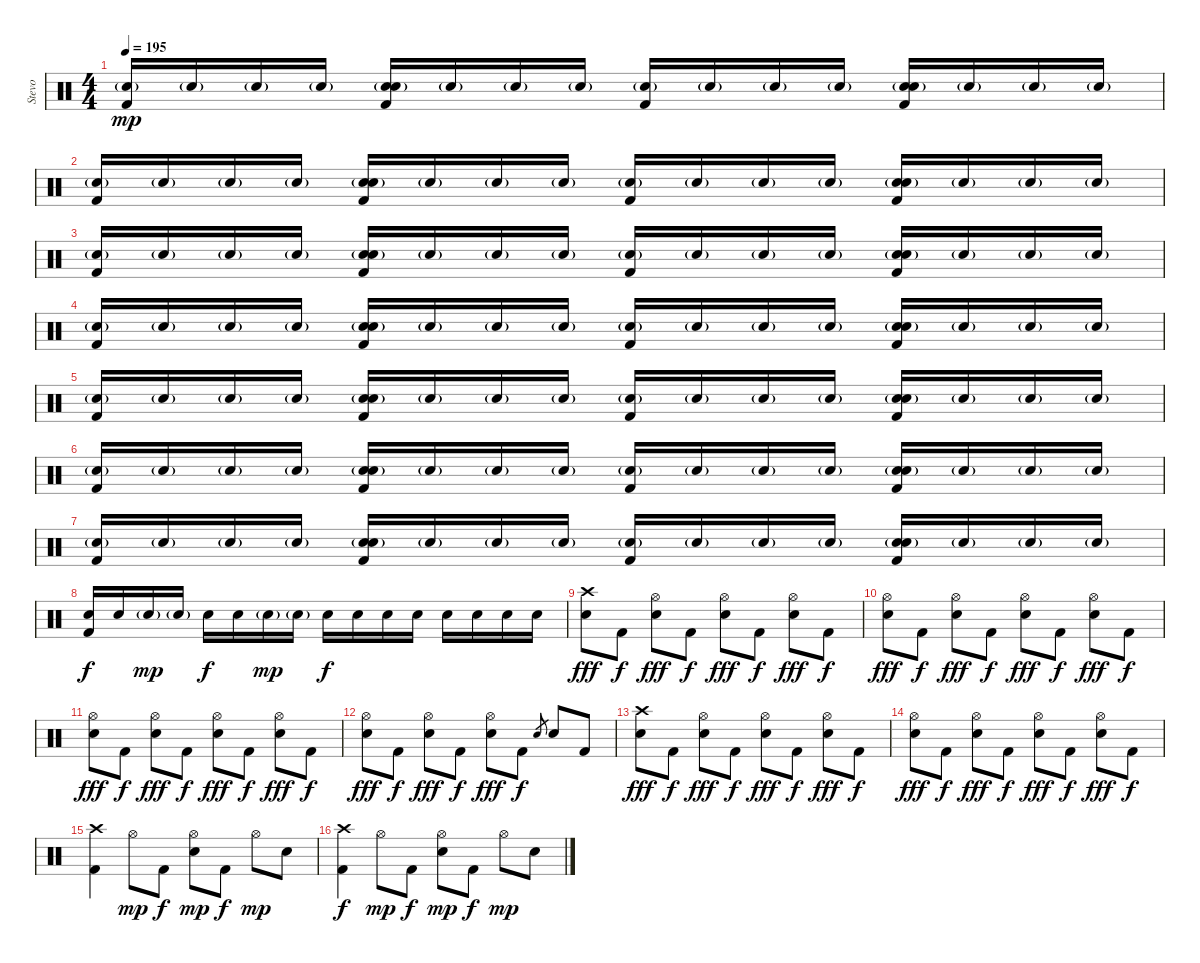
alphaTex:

\track ("Stevo" "Stevo") {instrument percussion}
\staff {score}
\articulation defaults
\ts (4 4)
\tempo 195
\clef neutral
\ks c
("Electric Snare (hit)"{g} "Kick (hit) 2").16{dy mp} "Electric Snare (hit)"{g}.16 "Electric Snare (hit)"{g}.16 "Electric Snare (hit)"{g}.16 ("Electric Snare (hit)"{g} "Electric Snare (hit)" "Kick (hit) 2").16 "Electric Snare (hit)"{g}.16 "Electric Snare (hit)"{g}.16 "Electric Snare (hit)"{g}.16 ("Electric Snare (hit)"{g} "Kick (hit) 2").16 "Electric Snare (hit)"{g}.16 "Electric Snare (hit)"{g}.16 "Electric Snare (hit)"{g}.16 ("Electric Snare (hit)"{g} "Electric Snare (hit)" "Kick (hit) 2").16 "Electric Snare (hit)"{g}.16 "Electric Snare (hit)"{g}.16 "Electric Snare (hit)"{g}.16 |
("Electric Snare (hit)"{g} "Kick (hit) 2").16 "Electric Snare (hit)"{g}.16 "Electric Snare (hit)"{g}.16 "Electric Snare (hit)"{g}.16 ("Electric Snare (hit)"{g} "Electric Snare (hit)" "Kick (hit) 2").16 "Electric Snare (hit)"{g}.16 "Electric Snare (hit)"{g}.16 "Electric Snare (hit)"{g}.16 ("Electric Snare (hit)"{g} "Kick (hit) 2").16 "Electric Snare (hit)"{g}.16 "Electric Snare (hit)"{g}.16 "Electric Snare (hit)"{g}.16 ("Electric Snare (hit)"{g} "Electric Snare (hit)" "Kick (hit) 2").16 "Electric Snare (hit)"{g}.16 "Electric Snare (hit)"{g}.16 "Electric Snare (hit)"{g}.16 |
("Electric Snare (hit)"{g} "Kick (hit) 2").16 "Electric Snare (hit)"{g}.16 "Electric Snare (hit)"{g}.16 "Electric Snare (hit)"{g}.16 ("Electric Snare (hit)"{g} "Electric Snare (hit)" "Kick (hit) 2").16 "Electric Snare (hit)"{g}.16 "Electric Snare (hit)"{g}.16 "Electric Snare (hit)"{g}.16 ("Electric Snare (hit)"{g} "Kick (hit) 2").16 "Electric Snare (hit)"{g}.16 "Electric Snare (hit)"{g}.16 "Electric Snare (hit)"{g}.16 ("Electric Snare (hit)"{g} "Electric Snare (hit)" "Kick (hit) 2").16 "Electric Snare (hit)"{g}.16 "Electric Snare (hit)"{g}.16 "Electric Snare (hit)"{g}.16 |
("Electric Snare (hit)"{g} "Kick (hit) 2").16 "Electric Snare (hit)"{g}.16 "Electric Snare (hit)"{g}.16 "Electric Snare (hit)"{g}.16 ("Electric Snare (hit)"{g} "Electric Snare (hit)" "Kick (hit) 2").16 "Electric Snare (hit)"{g}.16 "Electric Snare (hit)"{g}.16 "Electric Snare (hit)"{g}.16 ("Electric Snare (hit)"{g} "Kick (hit) 2").16 "Electric Snare (hit)"{g}.16 "Electric Snare (hit)"{g}.16 "Electric Snare (hit)"{g}.16 ("Electric Snare (hit)"{g} "Electric Snare (hit)" "Kick (hit) 2").16 "Electric Snare (hit)"{g}.16 "Electric Snare (hit)"{g}.16 "Electric Snare (hit)"{g}.16 |
("Electric Snare (hit)"{g} "Kick (hit) 2").16 "Electric Snare (hit)"{g}.16 "Electric Snare (hit)"{g}.16 "Electric Snare (hit)"{g}.16 ("Electric Snare (hit)"{g} "Electric Snare (hit)" "Kick (hit) 2").16 "Electric Snare (hit)"{g}.16 "Electric Snare (hit)"{g}.16 "Electric Snare (hit)"{g}.16 ("Electric Snare (hit)"{g} "Kick (hit) 2").16 "Electric Snare (hit)"{g}.16 "Electric Snare (hit)"{g}.16 "Electric Snare (hit)"{g}.16 ("Electric Snare (hit)"{g} "Electric Snare (hit)" "Kick (hit) 2").16 "Electric Snare (hit)"{g}.16 "Electric Snare (hit)"{g}.16 "Electric Snare (hit)"{g}.16 |
("Electric Snare (hit)"{g} "Kick (hit) 2").16 "Electric Snare (hit)"{g}.16 "Electric Snare (hit)"{g}.16 "Electric Snare (hit)"{g}.16 ("Electric Snare (hit)"{g} "Electric Snare (hit)" "Kick (hit) 2").16 "Electric Snare (hit)"{g}.16 "Electric Snare (hit)"{g}.16 "Electric Snare (hit)"{g}.16 ("Electric Snare (hit)"{g} "Kick (hit) 2").16 "Electric Snare (hit)"{g}.16 "Electric Snare (hit)"{g}.16 "Electric Snare (hit)"{g}.16 ("Electric Snare (hit)"{g} "Electric Snare (hit)" "Kick (hit) 2").16 "Electric Snare (hit)"{g}.16 "Electric Snare (hit)"{g}.16 "Electric Snare (hit)"{g}.16 |
("Electric Snare (hit)"{g} "Kick (hit) 2").16 "Electric Snare (hit)"{g}.16 "Electric Snare (hit)"{g}.16 "Electric Snare (hit)"{g}.16 ("Electric Snare (hit)"{g} "Electric Snare (hit)" "Kick (hit) 2").16 "Electric Snare (hit)"{g}.16 "Electric Snare (hit)"{g}.16 "Electric Snare (hit)"{g}.16 ("Electric Snare (hit)"{g} "Kick (hit) 2").16 "Electric Snare (hit)"{g}.16 "Electric Snare (hit)"{g}.16 "Electric Snare (hit)"{g}.16 ("Electric Snare (hit)"{g} "Electric Snare (hit)" "Kick (hit) 2").16 "Electric Snare (hit)"{g}.16 "Electric Snare (hit)"{g}.16 "Electric Snare (hit)"{g}.16 |
("Electric Snare (hit)" "Kick (hit) 2").16{dy f} "Electric Snare (hit)".16 "Electric Snare (hit)"{g}.16{dy mp} "Electric Snare (hit)"{g}.16 "Electric Snare (hit)".16{dy f} "Electric Snare (hit)".16 "Electric Snare (hit)"{g}.16{dy mp} "Electric Snare (hit)"{g}.16 "Electric Snare (hit)".16{dy f} "Electric Snare (hit)".16 "Electric Snare (hit)".16 "Electric Snare (hit)".16 "Electric Snare (hit)".16 "Electric Snare (hit)".16 "Electric Snare (hit)".16 "Electric Snare (hit)".16 |
("Crash high (hit)" "Electric Snare (hit)").8{dy fff} "Kick (hit) 2".8{dy f} ("Hi-Hat (open)" "Electric Snare (hit)").8{dy fff} "Kick (hit) 2".8{dy f} ("Hi-Hat (open)" "Electric Snare (hit)").8{dy fff} "Kick (hit) 2".8{dy f} ("Hi-Hat (open)" "Electric Snare (hit)").8{dy fff} "Kick (hit) 2".8{dy f} |
("Hi-Hat (open)" "Electric Snare (hit)").8{dy fff} "Kick (hit) 2".8{dy f} ("Hi-Hat (open)" "Electric Snare (hit)").8{dy fff} "Kick (hit) 2".8{dy f} ("Hi-Hat (open)" "Electric Snare (hit)").8{dy fff} "Kick (hit) 2".8{dy f} ("Hi-Hat (open)" "Electric Snare (hit)").8{dy fff} "Kick (hit) 2".8{dy f} |
("Hi-Hat (open)" "Electric Snare (hit)").8{dy fff} "Kick (hit) 2".8{dy f} ("Hi-Hat (open)" "Electric Snare (hit)").8{dy fff} "Kick (hit) 2".8{dy f} ("Hi-Hat (open)" "Electric Snare (hit)").8{dy fff} "Kick (hit) 2".8{dy f} ("Hi-Hat (open)" "Electric Snare (hit)").8{dy fff} "Kick (hit) 2".8{dy f} |
("Hi-Hat (open)" "Electric Snare (hit)").8{dy fff} "Kick (hit) 2".8{dy f} ("Hi-Hat (open)" "Electric Snare (hit)").8{dy fff} "Kick (hit) 2".8{dy f} ("Hi-Hat (open)" "Electric Snare (hit)").8{dy fff} "Kick (hit) 2".8{dy f} "Electric Snare (hit)".8{gr} "Electric Snare (hit)".8 "Kick (hit) 2".8 |
("Crash high (hit)" "Electric Snare (hit)").8{dy fff} "Kick (hit) 2".8{dy f} ("Hi-Hat (open)" "Electric Snare (hit)").8{dy fff} "Kick (hit) 2".8{dy f} ("Hi-Hat (open)" "Electric Snare (hit)").8{dy fff} "Kick (hit) 2".8{dy f} ("Hi-Hat (open)" "Electric Snare (hit)").8{dy fff} "Kick (hit) 2".8{dy f} |
("Hi-Hat (open)" "Electric Snare (hit)").8{dy fff} "Kick (hit) 2".8{dy f} ("Hi-Hat (open)" "Electric Snare (hit)").8{dy fff} "Kick (hit) 2".8{dy f} ("Hi-Hat (open)" "Electric Snare (hit)").8{dy fff} "Kick (hit) 2".8{dy f} ("Hi-Hat (open)" "Electric Snare (hit)").8{dy fff} "Kick (hit) 2".8{dy f} |
("Crash high (hit)" "Kick (hit) 2").4 "Hi-Hat (open)".8{dy mp} "Kick (hit) 2".8{dy f} ("Hi-Hat (open)" "Electric Snare (hit)").8{dy mp} "Kick (hit) 2".8{dy f} "Hi-Hat (open)".8{dy mp} "Electric Snare (hit)".8 |
("Crash high (hit)" "Kick (hit) 2").4{dy f} "Hi-Hat (open)".8{dy mp} "Kick (hit) 2".8{dy f} ("Hi-Hat (open)" "Electric Snare (hit)").8{dy mp} "Kick (hit) 2".8{dy f} "Hi-Hat (open)".8{dy mp} "Electric Snare (hit)".8
